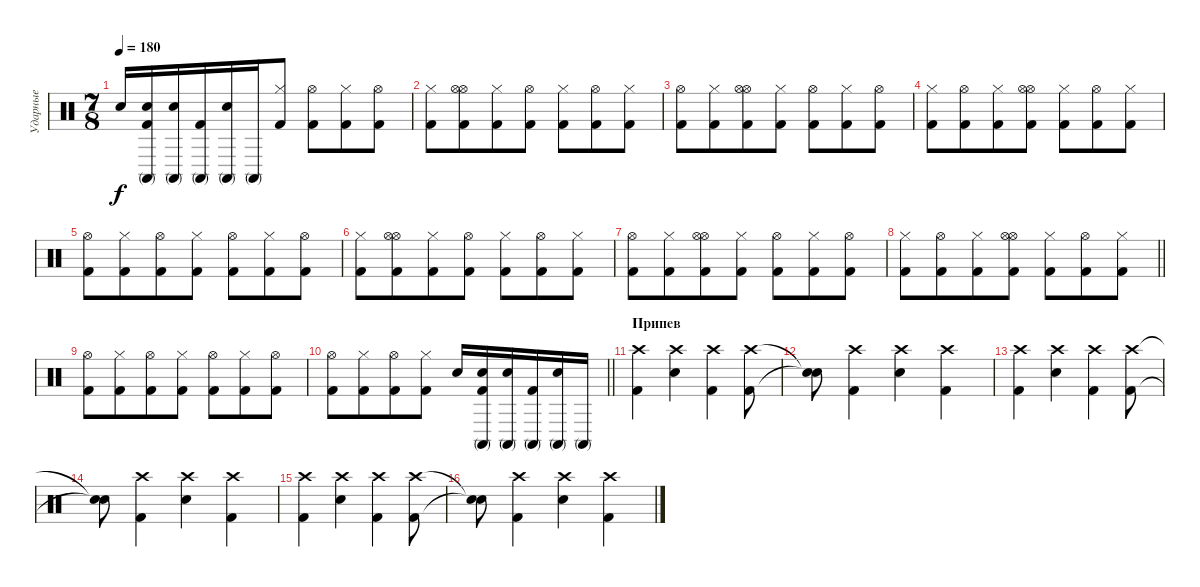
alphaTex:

\track ("Ударные" "Ударные") {instrument percussion}
\staff {score}
\articulation defaults
\ts (7 8)
\tempo 180
\clef neutral
\ks c "Electric Snare (hit)".16{dy f}
("Electric Snare (hit)" "Conga high (mute)" "Kick (hit) 2").16 ("Electric Snare (hit)" "Conga high (mute)").16 ("Conga high (mute)" "Kick (hit) 2").16 ("Electric Snare (hit)" "Conga high (mute)").16 "Conga high (mute)".16 ("Hi-Hat (closed)" "Kick (hit) 2").8 ("Hi-Hat (open)" "Kick (hit) 2").8 ("Hi-Hat (closed)" "Kick (hit) 2").8 ("Hi-Hat (open)" "Kick (hit) 2").8 |
("Hi-Hat (closed)" "Kick (hit) 2").8 ("Hi-Hat (open)" "Hi-Hat (open)" "Kick (hit) 2").8 ("Hi-Hat (closed)" "Kick (hit) 2").8 ("Hi-Hat (open)" "Kick (hit) 2").8 ("Hi-Hat (closed)" "Kick (hit) 2").8 ("Hi-Hat (open)" "Kick (hit) 2").8 ("Hi-Hat (closed)" "Kick (hit) 2").8 |
("Hi-Hat (open)" "Kick (hit) 2").8 ("Hi-Hat (closed)" "Kick (hit) 2").8 ("Hi-Hat (open)" "Hi-Hat (open)" "Kick (hit) 2").8 ("Hi-Hat (closed)" "Kick (hit) 2").8 ("Hi-Hat (open)" "Kick (hit) 2").8 ("Hi-Hat (closed)" "Kick (hit) 2").8 ("Hi-Hat (open)" "Kick (hit) 2").8 |
("Hi-Hat (closed)" "Kick (hit) 2").8 ("Hi-Hat (open)" "Kick (hit) 2").8 ("Hi-Hat (closed)" "Kick (hit) 2").8 ("Hi-Hat (open)" "Hi-Hat (open)" "Kick (hit) 2").8 ("Hi-Hat (closed)" "Kick (hit) 2").8 ("Hi-Hat (open)" "Kick (hit) 2").8 ("Hi-Hat (closed)" "Kick (hit) 2").8 |
("Hi-Hat (open)" "Kick (hit) 2").8 ("Hi-Hat (closed)" "Kick (hit) 2").8 ("Hi-Hat (open)" "Kick (hit) 2").8 ("Hi-Hat (closed)" "Kick (hit) 2").8 ("Hi-Hat (open)" "Kick (hit) 2").8 ("Hi-Hat (closed)" "Kick (hit) 2").8 ("Hi-Hat (open)" "Kick (hit) 2").8 |
("Hi-Hat (closed)" "Kick (hit) 2").8 ("Hi-Hat (open)" "Hi-Hat (open)" "Kick (hit) 2").8 ("Hi-Hat (closed)" "Kick (hit) 2").8 ("Hi-Hat (open)" "Kick (hit) 2").8 ("Hi-Hat (closed)" "Kick (hit) 2").8 ("Hi-Hat (open)" "Kick (hit) 2").8 ("Hi-Hat (closed)" "Kick (hit) 2").8 |
("Hi-Hat (open)" "Kick (hit) 2").8 ("Hi-Hat (closed)" "Kick (hit) 2").8 ("Hi-Hat (open)" "Hi-Hat (open)" "Kick (hit) 2").8 ("Hi-Hat (closed)" "Kick (hit) 2").8 ("Hi-Hat (open)" "Kick (hit) 2").8 ("Hi-Hat (closed)" "Kick (hit) 2").8 ("Hi-Hat (open)" "Kick (hit) 2").8 |
\barLineRight lightlight
("Hi-Hat (closed)" "Kick (hit) 2").8 ("Hi-Hat (open)" "Kick (hit) 2").8 ("Hi-Hat (closed)" "Kick (hit) 2").8 ("Hi-Hat (open)" "Hi-Hat (open)" "Kick (hit) 2").8 ("Hi-Hat (closed)" "Kick (hit) 2").8 ("Hi-Hat (open)" "Kick (hit) 2").8 ("Hi-Hat (closed)" "Kick (hit) 2").8 |
("Hi-Hat (open)" "Kick (hit) 2").8 ("Hi-Hat (closed)" "Kick (hit) 2").8 ("Hi-Hat (open)" "Kick (hit) 2").8 ("Hi-Hat (closed)" "Kick (hit) 2").8 ("Hi-Hat (open)" "Kick (hit) 2").8 ("Hi-Hat (closed)" "Kick (hit) 2").8 ("Hi-Hat (open)" "Kick (hit) 2").8 |
\barLineRight lightlight
("Hi-Hat (open)" "Kick (hit) 2").8 ("Hi-Hat (closed)" "Kick (hit) 2").8 ("Hi-Hat (open)" "Kick (hit) 2").8 ("Hi-Hat (closed)" "Kick (hit) 2").8 "Electric Snare (hit)".16 ("Electric Snare (hit)" "Conga high (mute)" "Kick (hit) 2").16 ("Electric Snare (hit)" "Conga high (mute)").16 ("Conga high (mute)" "Kick (hit) 2").16 ("Electric Snare (hit)" "Conga high (mute)").16 "Conga high (mute)".16 |
\section ("" "Припев")
("Crash high (hit)" "Kick (hit) 2").4 ("Crash high (hit)" "Snare (hit) 2").4 ("Crash high (hit)" "Kick (hit) 2").4 ("Crash high (hit)" "Kick (hit) 2").8 |
("Snare (hit)"{t} "Snare (hit)"{t}).8 ("Crash high (hit)" "Kick (hit) 2").4 ("Crash high (hit)" "Snare (hit) 2").4 ("Crash high (hit)" "Kick (hit) 2").4 |
("Crash high (hit)" "Kick (hit) 2").4 ("Crash high (hit)" "Snare (hit) 2").4 ("Crash high (hit)" "Kick (hit) 2").4 ("Crash high (hit)" "Kick (hit) 2").8 |
("Snare (hit)"{t} "Snare (hit)"{t}).8 ("Crash high (hit)" "Kick (hit) 2").4 ("Crash high (hit)" "Snare (hit) 2").4 ("Crash high (hit)" "Kick (hit) 2").4 |
("Crash high (hit)" "Kick (hit) 2").4 ("Crash high (hit)" "Snare (hit) 2").4 ("Crash high (hit)" "Kick (hit) 2").4 ("Crash high (hit)" "Kick (hit) 2").8 |
("Snare (hit)"{t} "Snare (hit)"{t}).8 ("Crash high (hit)" "Kick (hit) 2").4 ("Crash high (hit)" "Snare (hit) 2").4 ("Crash high (hit)" "Kick (hit) 2").4
